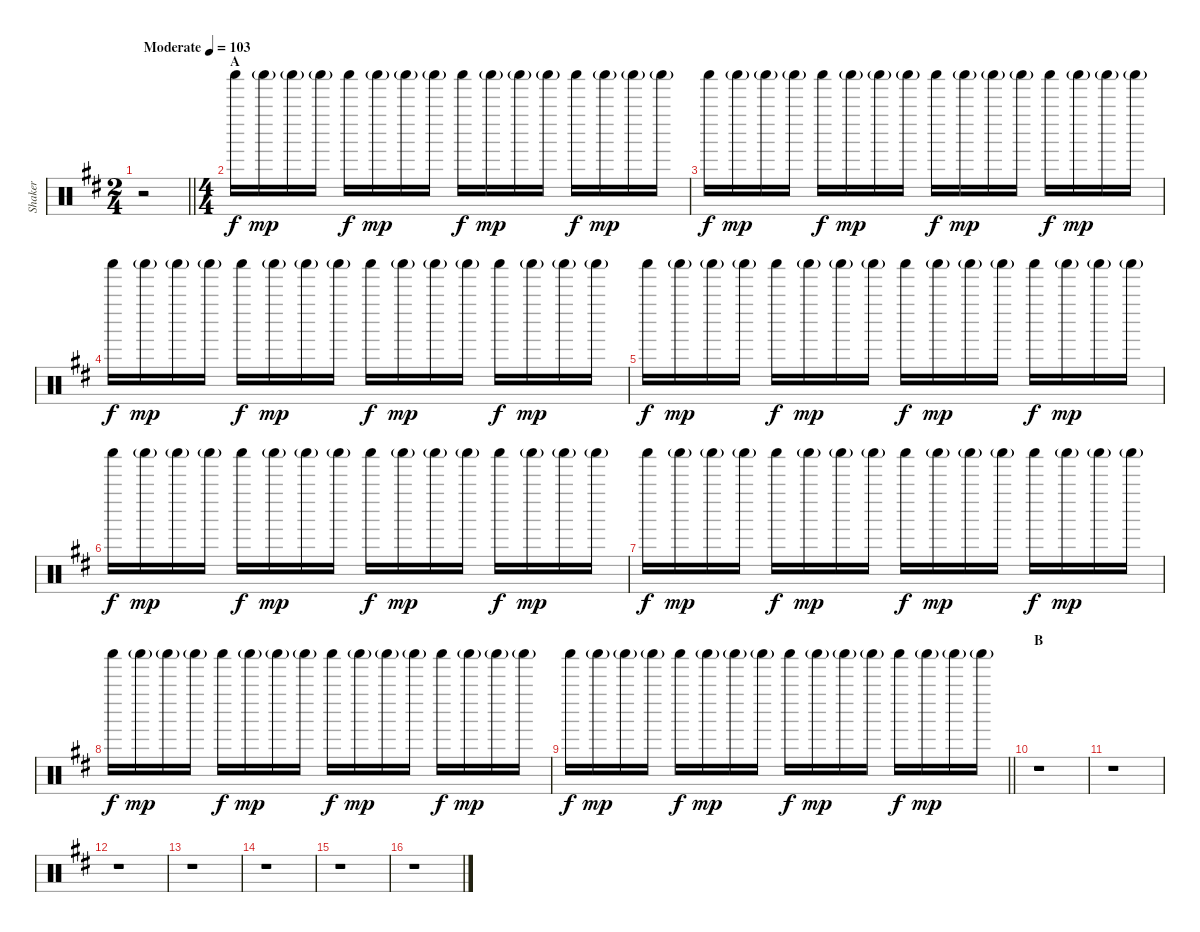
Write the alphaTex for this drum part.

\track ("Shaker" "Shaker") {instrument percussion}
\staff {score}
\articulation defaults
\ts (2 4)
\tempo (103 "Moderate")
\clef neutral
\barLineRight lightlight
\ks d
r.2{dy f} |
\ts (4 4)
\section ("" "A")
"Shaker (hit)".16 "Shaker (hit)"{g}.16{dy mp} "Shaker (hit)"{g}.16 "Shaker (hit)"{g}.16 "Shaker (hit)".16{dy f} "Shaker (hit)"{g}.16{dy mp} "Shaker (hit)"{g}.16 "Shaker (hit)"{g}.16 "Shaker (hit)".16{dy f} "Shaker (hit)"{g}.16{dy mp} "Shaker (hit)"{g}.16 "Shaker (hit)"{g}.16 "Shaker (hit)".16{dy f} "Shaker (hit)"{g}.16{dy mp} "Shaker (hit)"{g}.16 "Shaker (hit)"{g}.16 |
"Shaker (hit)".16{dy f} "Shaker (hit)"{g}.16{dy mp} "Shaker (hit)"{g}.16 "Shaker (hit)"{g}.16 "Shaker (hit)".16{dy f} "Shaker (hit)"{g}.16{dy mp} "Shaker (hit)"{g}.16 "Shaker (hit)"{g}.16 "Shaker (hit)".16{dy f} "Shaker (hit)"{g}.16{dy mp} "Shaker (hit)"{g}.16 "Shaker (hit)"{g}.16 "Shaker (hit)".16{dy f} "Shaker (hit)"{g}.16{dy mp} "Shaker (hit)"{g}.16 "Shaker (hit)"{g}.16 |
"Shaker (hit)".16{dy f} "Shaker (hit)"{g}.16{dy mp} "Shaker (hit)"{g}.16 "Shaker (hit)"{g}.16 "Shaker (hit)".16{dy f} "Shaker (hit)"{g}.16{dy mp} "Shaker (hit)"{g}.16 "Shaker (hit)"{g}.16 "Shaker (hit)".16{dy f} "Shaker (hit)"{g}.16{dy mp} "Shaker (hit)"{g}.16 "Shaker (hit)"{g}.16 "Shaker (hit)".16{dy f} "Shaker (hit)"{g}.16{dy mp} "Shaker (hit)"{g}.16 "Shaker (hit)"{g}.16 |
"Shaker (hit)".16{dy f} "Shaker (hit)"{g}.16{dy mp} "Shaker (hit)"{g}.16 "Shaker (hit)"{g}.16 "Shaker (hit)".16{dy f} "Shaker (hit)"{g}.16{dy mp} "Shaker (hit)"{g}.16 "Shaker (hit)"{g}.16 "Shaker (hit)".16{dy f} "Shaker (hit)"{g}.16{dy mp} "Shaker (hit)"{g}.16 "Shaker (hit)"{g}.16 "Shaker (hit)".16{dy f} "Shaker (hit)"{g}.16{dy mp} "Shaker (hit)"{g}.16 "Shaker (hit)"{g}.16 |
"Shaker (hit)".16{dy f} "Shaker (hit)"{g}.16{dy mp} "Shaker (hit)"{g}.16 "Shaker (hit)"{g}.16 "Shaker (hit)".16{dy f} "Shaker (hit)"{g}.16{dy mp} "Shaker (hit)"{g}.16 "Shaker (hit)"{g}.16 "Shaker (hit)".16{dy f} "Shaker (hit)"{g}.16{dy mp} "Shaker (hit)"{g}.16 "Shaker (hit)"{g}.16 "Shaker (hit)".16{dy f} "Shaker (hit)"{g}.16{dy mp} "Shaker (hit)"{g}.16 "Shaker (hit)"{g}.16 |
"Shaker (hit)".16{dy f} "Shaker (hit)"{g}.16{dy mp} "Shaker (hit)"{g}.16 "Shaker (hit)"{g}.16 "Shaker (hit)".16{dy f} "Shaker (hit)"{g}.16{dy mp} "Shaker (hit)"{g}.16 "Shaker (hit)"{g}.16 "Shaker (hit)".16{dy f} "Shaker (hit)"{g}.16{dy mp} "Shaker (hit)"{g}.16 "Shaker (hit)"{g}.16 "Shaker (hit)".16{dy f} "Shaker (hit)"{g}.16{dy mp} "Shaker (hit)"{g}.16 "Shaker (hit)"{g}.16 |
"Shaker (hit)".16{dy f} "Shaker (hit)"{g}.16{dy mp} "Shaker (hit)"{g}.16 "Shaker (hit)"{g}.16 "Shaker (hit)".16{dy f} "Shaker (hit)"{g}.16{dy mp} "Shaker (hit)"{g}.16 "Shaker (hit)"{g}.16 "Shaker (hit)".16{dy f} "Shaker (hit)"{g}.16{dy mp} "Shaker (hit)"{g}.16 "Shaker (hit)"{g}.16 "Shaker (hit)".16{dy f} "Shaker (hit)"{g}.16{dy mp} "Shaker (hit)"{g}.16 "Shaker (hit)"{g}.16 |
\barLineRight lightlight "Shaker (hit)".16{dy f} "Shaker (hit)"{g}.16{dy mp} "Shaker (hit)"{g}.16 "Shaker (hit)"{g}.16 "Shaker (hit)".16{dy f} "Shaker (hit)"{g}.16{dy mp} "Shaker (hit)"{g}.16 "Shaker (hit)"{g}.16 "Shaker (hit)".16{dy f} "Shaker (hit)"{g}.16{dy mp} "Shaker (hit)"{g}.16 "Shaker (hit)"{g}.16 "Shaker (hit)".16{dy f} "Shaker (hit)"{g}.16{dy mp} "Shaker (hit)"{g}.16 "Shaker (hit)"{g}.16
|
\section ("" "B")
r.1 |
r.1 |
r.1 |
r.1 |
r.1 |
r.1 |
r.1
